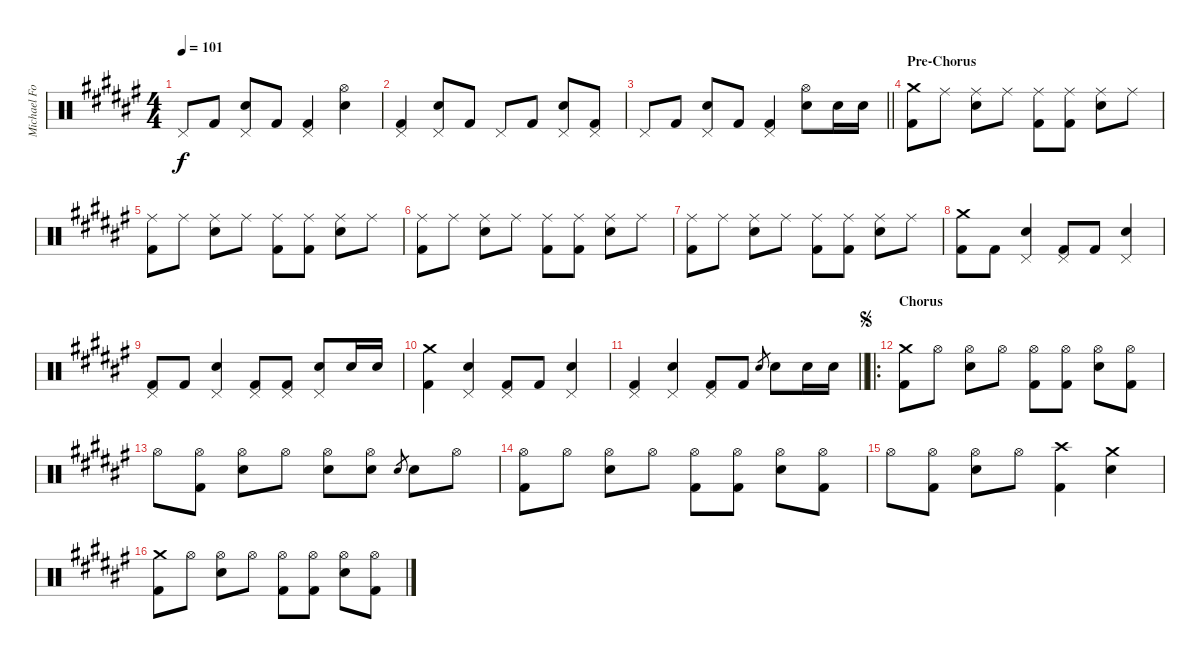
\track ("Michael Foster" "Michael Fo") {instrument percussion}
\staff {score}
\articulation defaults
\ts (4 4)
\tempo 101
\clef neutral
\ks f# "Pedal Hi-Hat (hit)".8{dy f} "Kick (hit) 2".8
("Pedal Hi-Hat (hit)" "Snare (hit) 2").8 "Kick (hit) 2".8 ("Pedal Hi-Hat (hit)" "Kick (hit) 2").4 ("Hi-Hat (open)" "Snare (hit) 2").4 |
("Pedal Hi-Hat (hit)" "Kick (hit) 2").4 ("Pedal Hi-Hat (hit)" "Snare (hit) 2").8 "Kick (hit) 2".8 "Pedal Hi-Hat (hit)".8 "Kick (hit) 2".8 ("Pedal Hi-Hat (hit)" "Snare (hit) 2").8 ("Pedal Hi-Hat (hit)" "Kick (hit) 2").8 |
\barLineRight lightlight "Pedal Hi-Hat (hit)".8 "Kick (hit) 2".8
("Pedal Hi-Hat (hit)" "Snare (hit) 2").8 "Kick (hit) 2".8 ("Pedal Hi-Hat (hit)" "Kick (hit) 2").4 ("Hi-Hat (open)" "Snare (hit) 2").8 "Snare (hit) 2".16 "Snare (hit) 2".16 |
\section ("" "Pre-Chorus")
("Crash medium (hit)" "Kick (hit) 2").8 "Ride (middle)".8 ("Ride (middle)" "Snare (hit) 2").8 "Ride (middle)".8 ("Ride (middle)" "Kick (hit) 2").8 ("Ride (middle)" "Kick (hit) 2").8 ("Ride (middle)" "Snare (hit) 2").8 "Ride (middle)".8 |
("Ride (middle)" "Kick (hit) 2").8 "Ride (middle)".8 ("Ride (middle)" "Snare (hit) 2").8 "Ride (middle)".8 ("Ride (middle)" "Kick (hit) 2").8 ("Ride (middle)" "Kick (hit) 2").8 ("Ride (middle)" "Snare (hit) 2").8 "Ride (middle)".8 |
("Ride (middle)" "Kick (hit) 2").8 "Ride (middle)".8 ("Ride (middle)" "Snare (hit) 2").8 "Ride (middle)".8 ("Ride (middle)" "Kick (hit) 2").8 ("Ride (middle)" "Kick (hit) 2").8 ("Ride (middle)" "Snare (hit) 2").8 "Ride (middle)".8 |
("Ride (middle)" "Kick (hit) 2").8 "Ride (middle)".8 ("Ride (middle)" "Snare (hit) 2").8 "Ride (middle)".8 ("Ride (middle)" "Kick (hit) 2").8 ("Ride (middle)" "Kick (hit) 2").8 ("Ride (middle)" "Snare (hit) 2").8 "Ride (middle)".8 |
("Crash medium (hit)" "Kick (hit) 2").8 "Kick (hit) 2".8 ("Pedal Hi-Hat (hit)" "Snare (hit) 2").4 ("Pedal Hi-Hat (hit)" "Kick (hit) 2").8 "Kick (hit) 2".8 ("Pedal Hi-Hat (hit)" "Snare (hit) 2").4 |
("Pedal Hi-Hat (hit)" "Kick (hit) 2").8 "Kick (hit) 2".8 ("Pedal Hi-Hat (hit)" "Snare (hit) 2").4 ("Pedal Hi-Hat (hit)" "Kick (hit) 2").8 ("Pedal Hi-Hat (hit)" "Kick (hit) 2").8 ("Pedal Hi-Hat (hit)" "Snare (hit) 2").8 "Snare (hit) 2".16 "Snare (hit) 2".16 |
("Crash medium (hit)" "Kick (hit) 2").4 ("Pedal Hi-Hat (hit)" "Snare (hit) 2").4 ("Pedal Hi-Hat (hit)" "Kick (hit) 2").8 "Kick (hit) 2".8 ("Pedal Hi-Hat (hit)" "Snare (hit) 2").4 |
\barLineRight lightlight
("Pedal Hi-Hat (hit)" "Kick (hit) 2").4 ("Pedal Hi-Hat (hit)" "Snare (hit) 2").4 ("Pedal Hi-Hat (hit)" "Kick (hit) 2").8 "Kick (hit) 2".8 "Snare (hit) 2".8{gr} "Snare (hit) 2".8 "Snare (hit) 2".16 "Snare (hit) 2".16 |
\ro
\section ("" "Chorus")
\jump segno
("Crash medium (hit)" "Kick (hit) 2").8 "Hi-Hat (open)".8 ("Hi-Hat (open)" "Snare (hit) 2").8 "Hi-Hat (open)".8 ("Hi-Hat (open)" "Kick (hit) 2").8 ("Hi-Hat (open)" "Kick (hit) 2").8 ("Hi-Hat (open)" "Snare (hit) 2").8 ("Hi-Hat (open)" "Kick (hit) 2").8 |
"Hi-Hat (open)".8 ("Hi-Hat (open)" "Kick (hit) 2").8 ("Hi-Hat (open)" "Snare (hit) 2").8 "Hi-Hat (open)".8 ("Hi-Hat (open)" "Snare (hit) 2").8 ("Hi-Hat (open)" "Snare (hit) 2").8 "Snare (hit) 2".8{gr} "Snare (hit) 2".8 "Hi-Hat (open)".8 |
("Hi-Hat (open)" "Kick (hit) 2").8 "Hi-Hat (open)".8 ("Hi-Hat (open)" "Snare (hit) 2").8 "Hi-Hat (open)".8 ("Hi-Hat (open)" "Kick (hit) 2").8 ("Hi-Hat (open)" "Kick (hit) 2").8 ("Hi-Hat (open)" "Snare (hit) 2").8 ("Hi-Hat (open)" "Kick (hit) 2").8 |
"Hi-Hat (open)".8 ("Hi-Hat (open)" "Kick (hit) 2").8 ("Hi-Hat (open)" "Snare (hit) 2").8 "Hi-Hat (open)".8 ("Crash high (hit)" "Kick (hit) 2").4 ("Crash medium (hit)" "Snare (hit) 2").4 |
("Crash medium (hit)" "Kick (hit) 2").8 "Hi-Hat (open)".8 ("Hi-Hat (open)" "Snare (hit) 2").8 "Hi-Hat (open)".8 ("Hi-Hat (open)" "Kick (hit) 2").8 ("Hi-Hat (open)" "Kick (hit) 2").8 ("Hi-Hat (open)" "Snare (hit) 2").8 ("Hi-Hat (open)" "Kick (hit) 2").8
